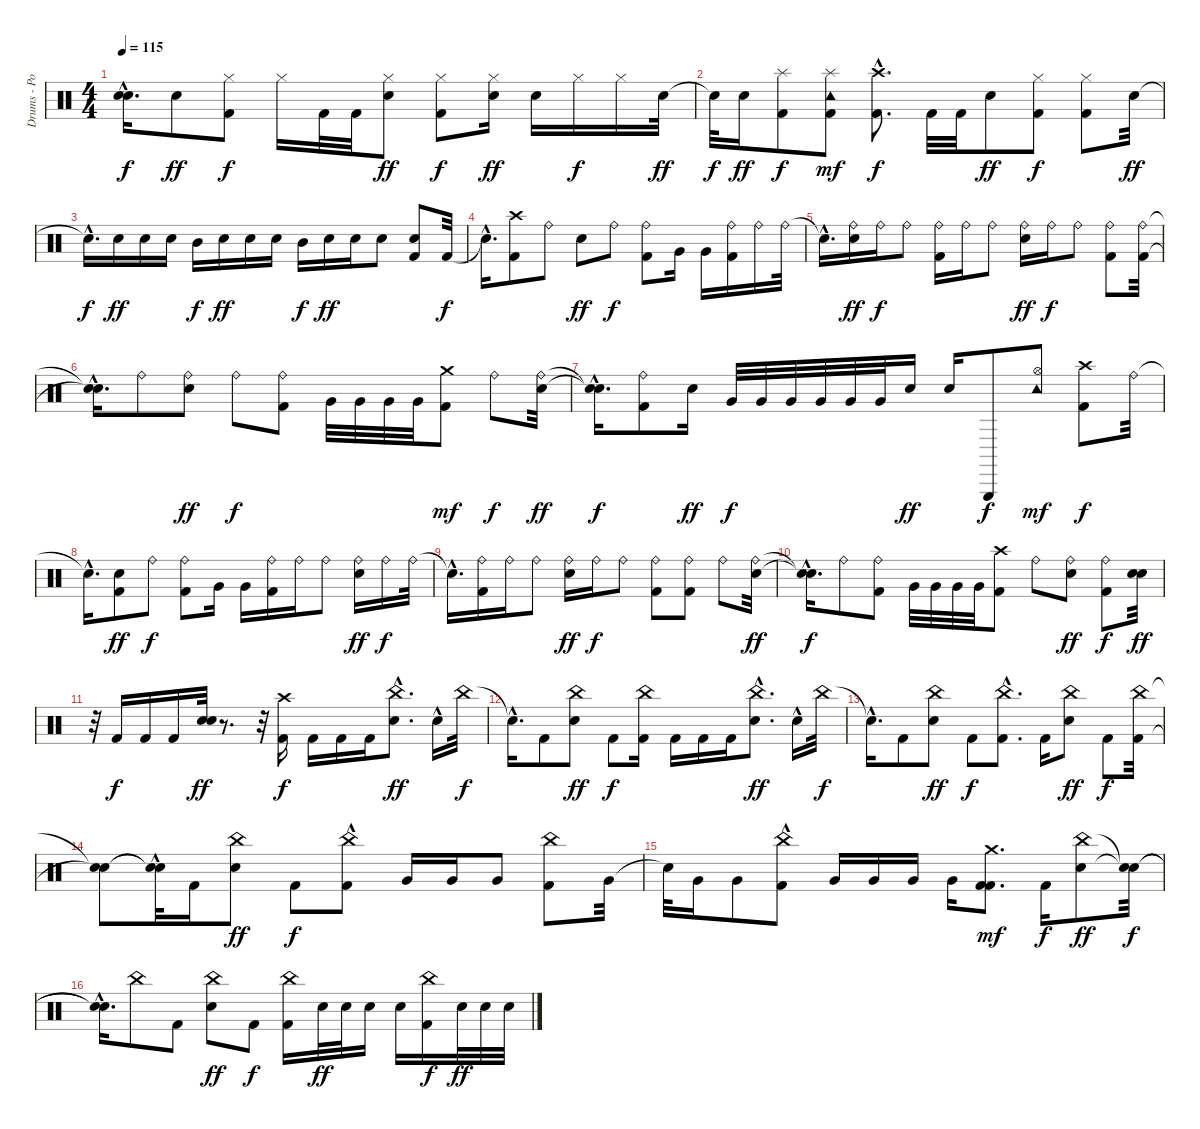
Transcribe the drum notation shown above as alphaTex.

\track ("Drums - Portnoy" "Drums - Po") {instrument percussion}
\staff {score}
\articulation defaults
\ts (4 4)
\tempo 115
\clef neutral
\ks c
("Snare (hit)"{hac t} "Snare (hit)"{hac t}).16{d dy f} "Electric Snare (hit)".8{dy ff} ("Kick (hit) 2" "Hi-Hat (closed)").8{dy f} "Hi-Hat (closed)".16 "Kick (hit) 2".32 "Kick (hit) 2".32 ("Hi-Hat (closed)" "Electric Snare (hit)").8{dy ff} ("Kick (hit) 2" "Hi-Hat (closed)").8{dy f} ("Hi-Hat (closed)" "Electric Snare (hit)").16{dy ff} "Electric Snare (hit)".16 "Hi-Hat (closed)".16{dy f} "Hi-Hat (closed)".16 "Electric Snare (hit)".32{dy ff} |
"Snare (hit)"{t}.32{dy f} "Electric Snare (hit)".16{dy ff} ("Splash (hit)" "Kick (hit) 2").8{dy f} ("Splash (hit)" "Kick (hit) 2" "Tambourine (hit)").8{dy mf} ("Crash high (hit)" "Kick (hit) 2"{hac}).8{d dy f} "Kick (hit) 2".32 "Kick (hit) 2".32 "Electric Snare (hit)".8{dy ff} ("Kick (hit) 2" "Hi-Hat (closed)").8{dy f} ("Kick (hit) 2" "Hi-Hat (closed)").8 "Electric Snare (hit)".32{dy ff} |
"Snare (hit)"{hac t}.16{d dy f} "Electric Snare (hit)".16{dy ff} "Electric Snare (hit)".16 "Electric Snare (hit)".16 "Mid Tom (hit)".16{dy f} "Electric Snare (hit)".16{dy ff} "Electric Snare (hit)".16 "Electric Snare (hit)".16 "Mid Tom (hit)".16{dy f} "Electric Snare (hit)".16{dy ff} "Electric Snare (hit)".16 "Electric Snare (hit)".8 ("Kick (hit) 2" "Electric Snare (hit)").8 "Kick (hit) 2".32{dy f} |
"Snare (hit)"{hac t}.16{d} ("Kick (hit) 2" "Crash high (hit)").8 "Ride (bell)".8 "Electric Snare (hit)".8{dy ff} "Ride (bell)".8{dy f} ("Kick (hit) 2" "Ride (bell)").8 "Very Low Tom (hit)".16 "Very Low Tom (hit)".16 ("Kick (hit) 2" "Ride (bell)").16 "Ride (bell)".16 "Ride (bell)".32 |
"Snare (hit)"{hac t}.16{d} ("Electric Snare (hit)" "Ride (bell)").16{dy ff} "Ride (bell)".16{dy f} "Ride (bell)".8 ("Ride (bell)" "Kick (hit) 2").16 "Ride (bell)".16 "Ride (bell)".8 ("Ride (bell)" "Electric Snare (hit)").16{dy ff} "Ride (bell)".16{dy f} "Ride (bell)".8 ("Kick (hit) 2" "Ride (bell)").8 ("Kick (hit) 2" "Ride (bell)").32 |
("Snare (hit)"{hac t} "Snare (hit)"{hac t}).16{d} "Ride (bell)".8 ("Ride (bell)" "Electric Snare (hit)").8{dy ff} "Ride (bell)".8{dy f} ("Kick (hit) 2" "Ride (bell)").8 "Very Low Tom (hit)".32 "Very Low Tom (hit)".32 "Very Low Tom (hit)".32 "Very Low Tom (hit)".32 ("Kick (hit) 2" "Crash medium (hit)").8{dy mf} "Ride (bell)".8{dy f} ("Ride (bell)" "Electric Snare (hit)").32{dy ff} |
("Snare (hit)"{hac t} "Snare (hit)"{hac t}).16{d dy f} ("Kick (hit) 2" "Ride (bell)").8 "Electric Snare (hit)".16{dy ff} "Very Low Tom (hit)".32{dy f} "Very Low Tom (hit)".32 "Very Low Tom (hit)".32 "Very Low Tom (hit)".32 "Very Low Tom (hit)".32 "Very Low Tom (hit)".32 "Electric Snare (hit)".16{dy ff} "Electric Snare (hit)".16 "Triangle (hit)".8{dy f} ("Hi-Hat (open)" "Tambourine (hit)").8{dy mf} ("Crash high (hit)" "Kick (hit) 2").8{dy f} "Ride (bell)".32 |
"Snare (hit)"{hac t}.16{d} ("Kick (hit) 2" "Electric Snare (hit)").8{dy ff} "Ride (bell)".8{dy f} ("Kick (hit) 2" "Ride (bell)").8 "Very Low Tom (hit)".16 "Very Low Tom (hit)".16 ("Kick (hit) 2" "Ride (bell)").16 "Ride (bell)".16 "Ride (bell)".8 ("Electric Snare (hit)" "Ride (bell)").16{dy ff} "Ride (bell)".16{dy f} "Ride (bell)".32 |
"Snare (hit)"{hac t}.16{d} ("Ride (bell)" "Kick (hit) 2").16 "Ride (bell)".16 "Ride (bell)".8 ("Ride (bell)" "Electric Snare (hit)").16{dy ff} "Ride (bell)".16{dy f} "Ride (bell)".8 ("Kick (hit) 2" "Ride (bell)").8 ("Kick (hit) 2" "Ride (bell)").8 "Ride (bell)".8 ("Ride (bell)" "Electric Snare (hit)").32{dy ff} |
("Snare (hit)"{hac t} "Snare (hit)"{hac t}).16{d dy f} "Ride (bell)".8 ("Kick (hit) 2" "Ride (bell)").8 "Very Low Tom (hit)".32 "Very Low Tom (hit)".32 "Very Low Tom (hit)".32 "Very Low Tom (hit)".32 ("Kick (hit) 2" "Crash high (hit)").8 "Ride (bell)".8 ("Ride (bell)" "Electric Snare (hit)").8{dy ff} ("Kick (hit) 2" "Ride (bell)").8{dy f} ("Electric Snare (hit)" "Electric Snare (hit)").32{dy ff} |
r.32 "Kick (hit) 2".16{dy f} "Kick (hit) 2".16 "Kick (hit) 2".16 ("Electric Snare (hit)" "Electric Snare (hit)").32{dy ff} r.8{d} r.32 ("Crash high (hit)" "Kick (hit) 2").16{dy f} "Kick (hit) 2".16 "Kick (hit) 2".16 "Kick (hit) 2".16 ("Electric Snare (hit)"{hac} "China (hit)").8{d dy ff} "Electric Snare (hit)"{hac}.16 "China (hit)".32{dy f} |
"Snare (hit)"{hac t}.16{d} "Kick (hit) 2".8 ("Electric Snare (hit)" "China (hit)").8{dy ff} "Kick (hit) 2".8{dy f} ("Kick (hit) 2" "China (hit)").16 "Kick (hit) 2".16 "Kick (hit) 2".16 "Kick (hit) 2".16 ("Electric Snare (hit)"{hac} "China (hit)").8{d dy ff} "Electric Snare (hit)"{hac}.16 "China (hit)".32{dy f} |
"Snare (hit)"{hac t}.16{d} "Kick (hit) 2".8 ("Electric Snare (hit)" "China (hit)").8{dy ff} "Kick (hit) 2".8{dy f} ("Kick (hit) 2"{hac} "China (hit)").8{d} "Kick (hit) 2".16 ("Electric Snare (hit)" "China (hit)").8{dy ff} "Kick (hit) 2".8{dy f} ("Kick (hit) 2" "China (hit)").32 |
("Snare (hit)"{t} "Snare (hit)"{t}).8 ("Snare (hit)"{t} "Snare (hit)"{hac t}).32 "Kick (hit) 2".16 ("Electric Snare (hit)" "China (hit)").8{dy ff} "Kick (hit) 2".8{dy f} ("Kick (hit) 2" "China (hit)"{hac}).8 "Very Low Tom (hit)".16 "Very Low Tom (hit)".16 "Very Low Tom (hit)".8 ("Kick (hit) 2" "China (hit)").8 "Very Low Tom (hit)".32 |
"Snare (hit)"{t}.32 "Very Low Tom (hit)".16 "Very Low Tom (hit)".8 ("Kick (hit) 2" "China (hit)"{hac}).8 "Very Low Tom (hit)".16 "Very Low Tom (hit)".16 "Very Low Tom (hit)".16 "Very Low Tom (hit)".16 ("Kick (hit) 2" "Kick (hit) 2" "Crash medium (hit)").8{d dy mf} "Kick (hit) 2".16{dy f} ("Electric Snare (hit)" "China (hit)").8{dy ff} ("Snare (hit)"{t} "Snare (hit)"{t}).32{dy f} |
("Snare (hit)"{hac t} "Snare (hit)"{hac t}).16{d} "China (hit)".8 "Kick (hit) 2".8 ("Electric Snare (hit)" "China (hit)").8{dy ff} "Kick (hit) 2".8{dy f} ("Kick (hit) 2" "China (hit)").16 "Electric Snare (hit)".32{dy ff} "Electric Snare (hit)".32 "Electric Snare (hit)".16 "Electric Snare (hit)".16 ("Kick (hit) 2" "China (hit)").16{dy f} "Electric Snare (hit)".32{dy ff} "Electric Snare (hit)".32 "Electric Snare (hit)".32
